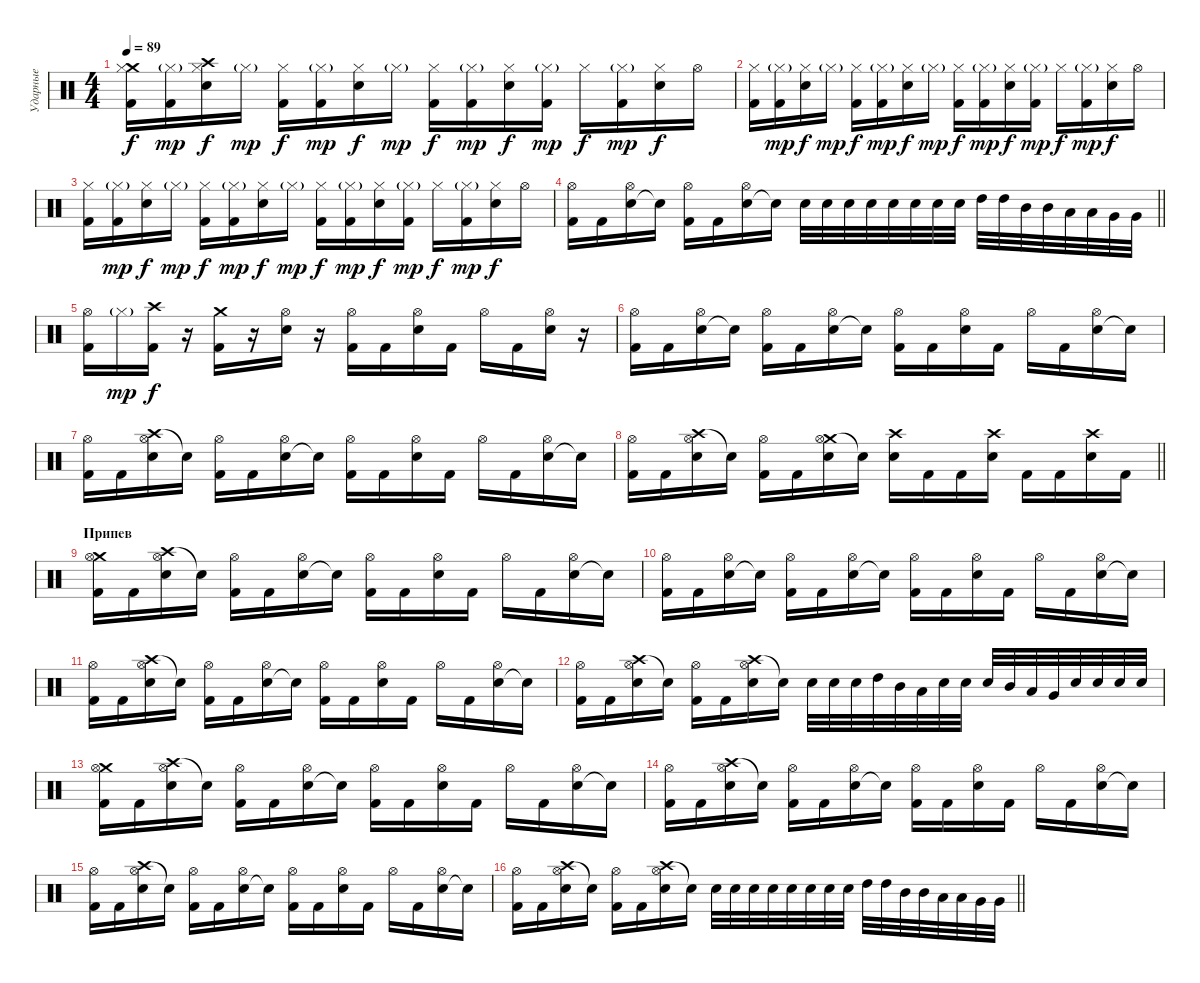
\track ("Ударные" "Ударные") {instrument percussion}
\staff {score}
\articulation defaults
\ts (4 4)
\tempo 89
\clef neutral
\ks c
("Crash medium (hit)" "Hi-Hat (closed)" "Kick (hit) 2").16{dy f} ("Hi-Hat (closed)"{g} "Kick (hit) 2").16{dy mp} ("Crash high (hit)" "Hi-Hat (closed)" "Electric Snare (hit)").16{dy f} "Hi-Hat (closed)"{g}.16{dy mp} ("Hi-Hat (closed)" "Kick (hit) 2").16{dy f} ("Hi-Hat (closed)"{g} "Kick (hit) 2").16{dy mp} ("Hi-Hat (closed)" "Electric Snare (hit)").16{dy f} "Hi-Hat (closed)"{g}.16{dy mp} ("Hi-Hat (closed)" "Kick (hit) 2").16{dy f} ("Hi-Hat (closed)"{g} "Kick (hit) 2").16{dy mp} ("Hi-Hat (closed)" "Electric Snare (hit)").16{dy f} ("Hi-Hat (closed)"{g} "Kick (hit) 2").16{dy mp} "Hi-Hat (closed)".16{dy f} ("Hi-Hat (closed)"{g} "Kick (hit) 2").16{dy mp} ("Hi-Hat (closed)" "Electric Snare (hit)").16{dy f} "Hi-Hat (open)".16 |
("Hi-Hat (closed)" "Kick (hit) 2").16 ("Hi-Hat (closed)"{g} "Kick (hit) 2").16{dy mp} ("Hi-Hat (closed)" "Electric Snare (hit)").16{dy f} "Hi-Hat (closed)"{g}.16{dy mp} ("Hi-Hat (closed)" "Kick (hit) 2").16{dy f} ("Hi-Hat (closed)"{g} "Kick (hit) 2").16{dy mp} ("Hi-Hat (closed)" "Electric Snare (hit)").16{dy f} "Hi-Hat (closed)"{g}.16{dy mp} ("Hi-Hat (closed)" "Kick (hit) 2").16{dy f} ("Hi-Hat (closed)"{g} "Kick (hit) 2").16{dy mp} ("Hi-Hat (closed)" "Electric Snare (hit)").16{dy f} ("Hi-Hat (closed)"{g} "Kick (hit) 2").16{dy mp} "Hi-Hat (closed)".16{dy f} ("Hi-Hat (closed)"{g} "Kick (hit) 2").16{dy mp} ("Hi-Hat (closed)" "Electric Snare (hit)").16{dy f} "Hi-Hat (open)".16 |
("Hi-Hat (closed)" "Kick (hit) 2").16 ("Hi-Hat (closed)"{g} "Kick (hit) 2").16{dy mp} ("Hi-Hat (closed)" "Electric Snare (hit)").16{dy f} "Hi-Hat (closed)"{g}.16{dy mp} ("Hi-Hat (closed)" "Kick (hit) 2").16{dy f} ("Hi-Hat (closed)"{g} "Kick (hit) 2").16{dy mp} ("Hi-Hat (closed)" "Electric Snare (hit)").16{dy f} "Hi-Hat (closed)"{g}.16{dy mp} ("Hi-Hat (closed)" "Kick (hit) 2").16{dy f} ("Hi-Hat (closed)"{g} "Kick (hit) 2").16{dy mp} ("Hi-Hat (closed)" "Electric Snare (hit)").16{dy f} ("Hi-Hat (closed)"{g} "Kick (hit) 2").16{dy mp} "Hi-Hat (closed)".16{dy f} ("Hi-Hat (closed)"{g} "Kick (hit) 2").16{dy mp} ("Hi-Hat (closed)" "Electric Snare (hit)").16{dy f} "Hi-Hat (open)".16 |
\barLineRight lightlight
("Kick (hit) 2" "Hi-Hat (open)").16 "Kick (hit) 2".16 ("Electric Snare (hit)" "Hi-Hat (open)").16 "Snare (hit)"{t}.16 ("Kick (hit) 2" "Hi-Hat (open)").16 "Kick (hit) 2".16 ("Electric Snare (hit)" "Hi-Hat (open)").16 "Snare (hit)"{t}.16 "Electric Snare (hit)".32 "Electric Snare (hit)".32 "Electric Snare (hit)".32 "Electric Snare (hit)".32 "Electric Snare (hit)".32 "Electric Snare (hit)".32 "Electric Snare (hit)".32 "Electric Snare (hit)".32 "High Tom (hit)".32 "High Tom (hit)".32 "Mid Tom (hit)".32 "Mid Tom (hit)".32 "Low Tom (hit)".32 "Low Tom (hit)".32 "Very Low Tom (hit)".32 "Very Low Tom (hit)".32 |
("Hi-Hat (open)" "Kick (hit) 2").16 "Hi-Hat (closed)"{g}.16{dy mp} ("Crash high (hit)" "Kick (hit) 2").16{dy f} r.16 ("Crash medium (hit)" "Kick (hit) 2").16 r.16 ("Electric Snare (hit)" "Hi-Hat (open)").16 r.16 ("Kick (hit) 2" "Hi-Hat (open)").16 "Kick (hit) 2".16 ("Electric Snare (hit)" "Hi-Hat (open)").16 "Kick (hit) 2".16 "Hi-Hat (open)".16 "Kick (hit) 2".16 ("Electric Snare (hit)" "Hi-Hat (open)").16 r.16 |
("Kick (hit) 2" "Hi-Hat (open)").16 "Kick (hit) 2".16 ("Electric Snare (hit)" "Hi-Hat (open)").16 "Snare (hit)"{t}.16 ("Kick (hit) 2" "Hi-Hat (open)").16 "Kick (hit) 2".16 ("Electric Snare (hit)" "Hi-Hat (open)").16 "Snare (hit)"{t}.16 ("Kick (hit) 2" "Hi-Hat (open)").16 "Kick (hit) 2".16 ("Electric Snare (hit)" "Hi-Hat (open)").16 "Kick (hit) 2".16 "Hi-Hat (open)".16 "Kick (hit) 2".16 ("Electric Snare (hit)" "Hi-Hat (open)").16 "Snare (hit)"{t}.16 |
("Kick (hit) 2" "Hi-Hat (open)").16 "Kick (hit) 2".16 ("Crash high (hit)" "Electric Snare (hit)" "Hi-Hat (open)").16 "Snare (hit)"{t}.16 ("Kick (hit) 2" "Hi-Hat (open)").16 "Kick (hit) 2".16 ("Electric Snare (hit)" "Hi-Hat (open)").16 "Snare (hit)"{t}.16 ("Kick (hit) 2" "Hi-Hat (open)").16 "Kick (hit) 2".16 ("Electric Snare (hit)" "Hi-Hat (open)").16 "Kick (hit) 2".16 "Hi-Hat (open)".16 "Kick (hit) 2".16 ("Electric Snare (hit)" "Hi-Hat (open)").16 "Snare (hit)"{t}.16 |
\barLineRight lightlight
("Kick (hit) 2" "Hi-Hat (open)").16 "Kick (hit) 2".16 ("Crash high (hit)" "Electric Snare (hit)" "Hi-Hat (open)").16 "Snare (hit)"{t}.16 ("Kick (hit) 2" "Hi-Hat (open)").16 "Kick (hit) 2".16 ("Crash medium (hit)" "Electric Snare (hit)" "Hi-Hat (open)").16 "Snare (hit)"{t}.16 ("Crash high (hit)" "Electric Snare (hit)").16 "Kick (hit) 2".16 "Kick (hit) 2".16 ("Crash high (hit)" "Electric Snare (hit)").16 "Kick (hit) 2".16 "Kick (hit) 2".16 ("Crash high (hit)" "Electric Snare (hit)").16 "Kick (hit) 2".16 |
\section ("" "Припев")
("Crash medium (hit)" "Kick (hit) 2" "Hi-Hat (open)").16 "Kick (hit) 2".16 ("Crash high (hit)" "Electric Snare (hit)" "Hi-Hat (open)").16 "Snare (hit)"{t}.16 ("Kick (hit) 2" "Hi-Hat (open)").16 "Kick (hit) 2".16 ("Electric Snare (hit)" "Hi-Hat (open)").16 "Snare (hit)"{t}.16 ("Kick (hit) 2" "Hi-Hat (open)").16 "Kick (hit) 2".16 ("Electric Snare (hit)" "Hi-Hat (open)").16 "Kick (hit) 2".16 "Hi-Hat (open)".16 "Kick (hit) 2".16 ("Electric Snare (hit)" "Hi-Hat (open)").16 "Snare (hit)"{t}.16 |
("Kick (hit) 2" "Hi-Hat (open)").16 "Kick (hit) 2".16 ("Electric Snare (hit)" "Hi-Hat (open)").16 "Snare (hit)"{t}.16 ("Kick (hit) 2" "Hi-Hat (open)").16 "Kick (hit) 2".16 ("Electric Snare (hit)" "Hi-Hat (open)").16 "Snare (hit)"{t}.16 ("Kick (hit) 2" "Hi-Hat (open)").16 "Kick (hit) 2".16 ("Electric Snare (hit)" "Hi-Hat (open)").16 "Kick (hit) 2".16 "Hi-Hat (open)".16 "Kick (hit) 2".16 ("Electric Snare (hit)" "Hi-Hat (open)").16 "Snare (hit)"{t}.16 |
("Kick (hit) 2" "Hi-Hat (open)").16 "Kick (hit) 2".16 ("Crash high (hit)" "Electric Snare (hit)" "Hi-Hat (open)").16 "Snare (hit)"{t}.16 ("Kick (hit) 2" "Hi-Hat (open)").16 "Kick (hit) 2".16 ("Electric Snare (hit)" "Hi-Hat (open)").16 "Snare (hit)"{t}.16 ("Kick (hit) 2" "Hi-Hat (open)").16 "Kick (hit) 2".16 ("Electric Snare (hit)" "Hi-Hat (open)").16 "Kick (hit) 2".16 "Hi-Hat (open)".16 "Kick (hit) 2".16 ("Electric Snare (hit)" "Hi-Hat (open)").16 "Snare (hit)"{t}.16 |
("Kick (hit) 2" "Hi-Hat (open)").16 "Kick (hit) 2".16 ("Crash high (hit)" "Electric Snare (hit)" "Hi-Hat (open)").16 "Snare (hit)"{t}.16 ("Kick (hit) 2" "Hi-Hat (open)").16 "Kick (hit) 2".16 ("Crash high (hit)" "Electric Snare (hit)" "Hi-Hat (open)").16 "Snare (hit)"{t}.16 "Electric Snare (hit)".32 "Electric Snare (hit)".32 "Electric Snare (hit)".32 "High Tom (hit)".32 "Mid Tom (hit)".32 "Low Tom (hit)".32 "Electric Snare (hit)".32 "Electric Snare (hit)".32 "Electric Snare (hit)".32 "Mid Tom (hit)".32 "Low Tom (hit)".32 "Very Low Tom (hit)".32 "Electric Snare (hit)".32 "Electric Snare (hit)".32 "Electric Snare (hit)".32 "Electric Snare (hit)".32 |
("Crash medium (hit)" "Kick (hit) 2" "Hi-Hat (open)").16 "Kick (hit) 2".16 ("Crash high (hit)" "Electric Snare (hit)" "Hi-Hat (open)").16 "Snare (hit)"{t}.16 ("Kick (hit) 2" "Hi-Hat (open)").16 "Kick (hit) 2".16 ("Electric Snare (hit)" "Hi-Hat (open)").16 "Snare (hit)"{t}.16 ("Kick (hit) 2" "Hi-Hat (open)").16 "Kick (hit) 2".16 ("Electric Snare (hit)" "Hi-Hat (open)").16 "Kick (hit) 2".16 "Hi-Hat (open)".16 "Kick (hit) 2".16 ("Electric Snare (hit)" "Hi-Hat (open)").16 "Snare (hit)"{t}.16 |
("Kick (hit) 2" "Hi-Hat (open)").16 "Kick (hit) 2".16 ("Crash high (hit)" "Electric Snare (hit)" "Hi-Hat (open)").16 "Snare (hit)"{t}.16 ("Kick (hit) 2" "Hi-Hat (open)").16 "Kick (hit) 2".16 ("Electric Snare (hit)" "Hi-Hat (open)").16 "Snare (hit)"{t}.16 ("Kick (hit) 2" "Hi-Hat (open)").16 "Kick (hit) 2".16 ("Electric Snare (hit)" "Hi-Hat (open)").16 "Kick (hit) 2".16 "Hi-Hat (open)".16 "Kick (hit) 2".16 ("Electric Snare (hit)" "Hi-Hat (open)").16 "Snare (hit)"{t}.16 |
("Kick (hit) 2" "Hi-Hat (open)").16 "Kick (hit) 2".16 ("Crash high (hit)" "Electric Snare (hit)" "Hi-Hat (open)").16 "Snare (hit)"{t}.16 ("Kick (hit) 2" "Hi-Hat (open)").16 "Kick (hit) 2".16 ("Electric Snare (hit)" "Hi-Hat (open)").16 "Snare (hit)"{t}.16 ("Kick (hit) 2" "Hi-Hat (open)").16 "Kick (hit) 2".16 ("Electric Snare (hit)" "Hi-Hat (open)").16 "Kick (hit) 2".16 "Hi-Hat (open)".16 "Kick (hit) 2".16 ("Electric Snare (hit)" "Hi-Hat (open)").16 "Snare (hit)"{t}.16 |
\barLineRight lightlight
("Kick (hit) 2" "Hi-Hat (open)").16 "Kick (hit) 2".16 ("Crash high (hit)" "Electric Snare (hit)" "Hi-Hat (open)").16 "Snare (hit)"{t}.16 ("Kick (hit) 2" "Hi-Hat (open)").16 "Kick (hit) 2".16 ("Crash high (hit)" "Electric Snare (hit)" "Hi-Hat (open)").16 "Snare (hit)"{t}.16 "Electric Snare (hit)".32 "Electric Snare (hit)".32 "Electric Snare (hit)".32 "Electric Snare (hit)".32 "Electric Snare (hit)".32 "Electric Snare (hit)".32 "Electric Snare (hit)".32 "Electric Snare (hit)".32 "High Tom (hit)".32 "High Tom (hit)".32 "Mid Tom (hit)".32 "Mid Tom (hit)".32 "Low Tom (hit)".32 "Low Tom (hit)".32 "Very Low Tom (hit)".32 "Very Low Tom (hit)".32
